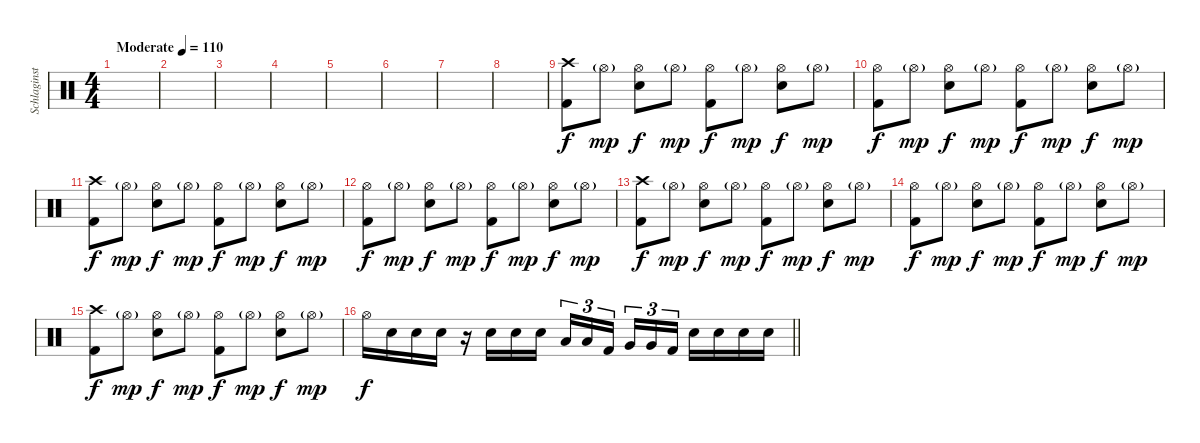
\track ("Schlaginstrumente - Auswahl" "Schlaginst") {instrument percussion}
\staff {score}
\articulation defaults
\ts (4 4)
\tempo (110 "Moderate")
\clef neutral
\ks c
|
|
|
|
|
|
|
|
("Crash high (hit)" "Kick (hit) 2").8 "Hi-Hat (open)"{g}.8{dy mp} ("Hi-Hat (open)" "Snare (hit) 2").8{dy f} "Hi-Hat (open)"{g}.8{dy mp} ("Hi-Hat (open)" "Kick (hit) 2").8{dy f} "Hi-Hat (open)"{g}.8{dy mp} ("Hi-Hat (open)" "Snare (hit) 2").8{dy f} "Hi-Hat (open)"{g}.8{dy mp} |
("Hi-Hat (open)" "Kick (hit) 2").8{dy f} "Hi-Hat (open)"{g}.8{dy mp} ("Hi-Hat (open)" "Snare (hit) 2").8{dy f} "Hi-Hat (open)"{g}.8{dy mp} ("Hi-Hat (open)" "Kick (hit) 2").8{dy f} "Hi-Hat (open)"{g}.8{dy mp} ("Hi-Hat (open)" "Snare (hit) 2").8{dy f} "Hi-Hat (open)"{g}.8{dy mp} |
("Crash high (hit)" "Kick (hit) 2").8{dy f} "Hi-Hat (open)"{g}.8{dy mp} ("Hi-Hat (open)" "Snare (hit) 2").8{dy f} "Hi-Hat (open)"{g}.8{dy mp} ("Hi-Hat (open)" "Kick (hit) 2").8{dy f} "Hi-Hat (open)"{g}.8{dy mp} ("Hi-Hat (open)" "Snare (hit) 2").8{dy f} "Hi-Hat (open)"{g}.8{dy mp} |
("Hi-Hat (open)" "Kick (hit) 2").8{dy f} "Hi-Hat (open)"{g}.8{dy mp} ("Hi-Hat (open)" "Snare (hit) 2").8{dy f} "Hi-Hat (open)"{g}.8{dy mp} ("Hi-Hat (open)" "Kick (hit) 2").8{dy f} "Hi-Hat (open)"{g}.8{dy mp} ("Hi-Hat (open)" "Snare (hit) 2").8{dy f} "Hi-Hat (open)"{g}.8{dy mp} |
("Crash high (hit)" "Kick (hit) 2").8{dy f} "Hi-Hat (open)"{g}.8{dy mp} ("Hi-Hat (open)" "Snare (hit) 2").8{dy f} "Hi-Hat (open)"{g}.8{dy mp} ("Hi-Hat (open)" "Kick (hit) 2").8{dy f} "Hi-Hat (open)"{g}.8{dy mp} ("Hi-Hat (open)" "Snare (hit) 2").8{dy f} "Hi-Hat (open)"{g}.8{dy mp} |
("Hi-Hat (open)" "Kick (hit) 2").8{dy f} "Hi-Hat (open)"{g}.8{dy mp} ("Hi-Hat (open)" "Snare (hit) 2").8{dy f} "Hi-Hat (open)"{g}.8{dy mp} ("Hi-Hat (open)" "Kick (hit) 2").8{dy f} "Hi-Hat (open)"{g}.8{dy mp} ("Hi-Hat (open)" "Snare (hit) 2").8{dy f} "Hi-Hat (open)"{g}.8{dy mp} |
("Crash high (hit)" "Kick (hit) 2").8{dy f} "Hi-Hat (open)"{g}.8{dy mp} ("Hi-Hat (open)" "Snare (hit) 2").8{dy f} "Hi-Hat (open)"{g}.8{dy mp} ("Hi-Hat (open)" "Kick (hit) 2").8{dy f} "Hi-Hat (open)"{g}.8{dy mp} ("Hi-Hat (open)" "Snare (hit) 2").8{dy f} "Hi-Hat (open)"{g}.8{dy mp} |
\barLineRight lightlight "Hi-Hat (open)".16{dy f} "Snare (hit) 2".16 "Snare (hit) 2".16 "Snare (hit) 2".16
r.16 "Snare (hit) 2".16 "Snare (hit) 2".16 "Snare (hit) 2".16 "Low Tom (hit)".16{tu (3 2)} "Low Tom (hit)".16{tu (3 2)} "Kick (hit) 2".16{tu (3 2) beam splitsecondary} "Very Low Tom (hit)".16{tu (3 2)} "Very Low Tom (hit)".16{tu (3 2)} "Kick (hit) 2".16{tu (3 2)} "Snare (hit) 2".16 "Snare (hit) 2".16 "Snare (hit) 2".16 "Snare (hit) 2".16
